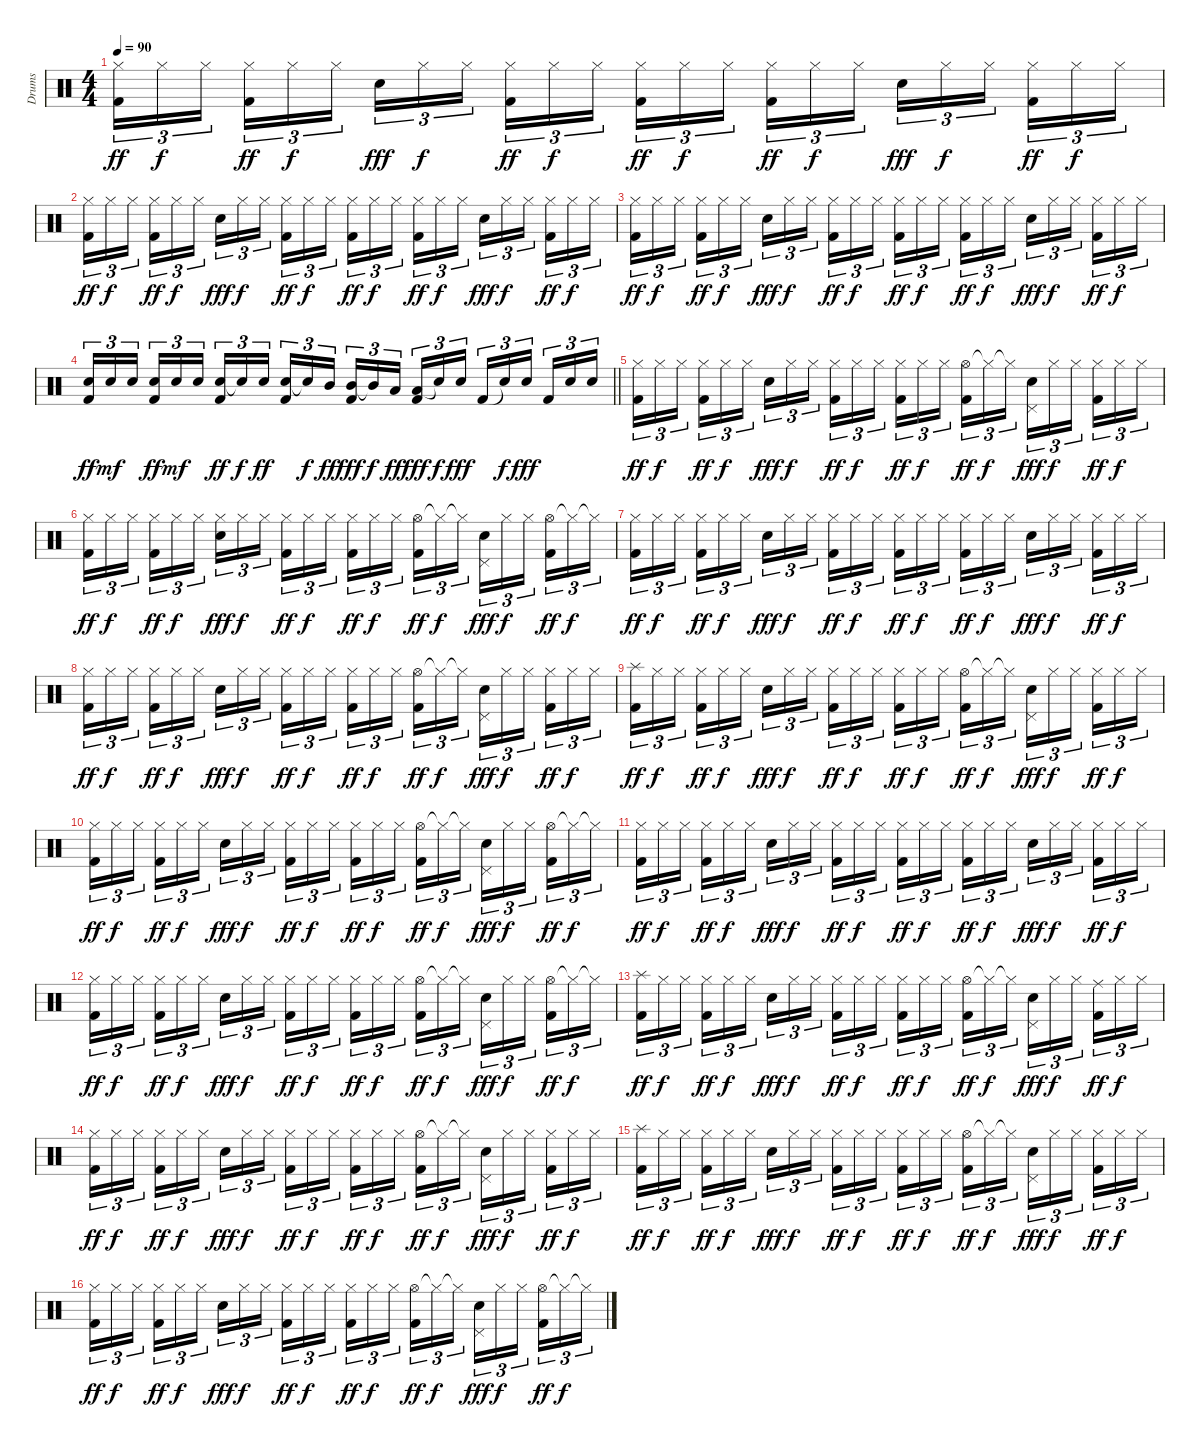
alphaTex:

\track ("Drums" "Drums") {instrument percussion}
\staff {score}
\articulation defaults
\ts (4 4)
\tempo 90
\clef neutral
\ks c
("Hi-Hat (closed)" "Kick (hit) 2").16{tu (3 2) dy ff} "Hi-Hat (closed)".16{tu (3 2) dy f} "Hi-Hat (closed)".16{tu (3 2) beam splitsecondary} ("Hi-Hat (closed)" "Kick (hit) 2").16{tu (3 2) dy ff} "Hi-Hat (closed)".16{tu (3 2) dy f} "Hi-Hat (closed)".16{tu (3 2)} "Snare (hit) 2".16{tu (3 2) dy fff} "Hi-Hat (closed)".16{tu (3 2) dy f} "Hi-Hat (closed)".16{tu (3 2) beam splitsecondary} ("Hi-Hat (closed)" "Kick (hit) 2").16{tu (3 2) dy ff} "Hi-Hat (closed)".16{tu (3 2) dy f} "Hi-Hat (closed)".16{tu (3 2)} ("Hi-Hat (closed)" "Kick (hit) 2").16{tu (3 2) dy ff} "Hi-Hat (closed)".16{tu (3 2) dy f} "Hi-Hat (closed)".16{tu (3 2) beam splitsecondary} ("Hi-Hat (closed)" "Kick (hit) 2").16{tu (3 2) dy ff} "Hi-Hat (closed)".16{tu (3 2) dy f} "Hi-Hat (closed)".16{tu (3 2)} "Snare (hit) 2".16{tu (3 2) dy fff} "Hi-Hat (closed)".16{tu (3 2) dy f} "Hi-Hat (closed)".16{tu (3 2) beam splitsecondary} ("Hi-Hat (closed)" "Kick (hit) 2").16{tu (3 2) dy ff} "Hi-Hat (closed)".16{tu (3 2) dy f} "Hi-Hat (closed)".16{tu (3 2)} |
("Hi-Hat (closed)" "Kick (hit) 2").16{tu (3 2) dy ff} "Hi-Hat (closed)".16{tu (3 2) dy f} "Hi-Hat (closed)".16{tu (3 2) beam splitsecondary} ("Hi-Hat (closed)" "Kick (hit) 2").16{tu (3 2) dy ff} "Hi-Hat (closed)".16{tu (3 2) dy f} "Hi-Hat (closed)".16{tu (3 2)} "Snare (hit) 2".16{tu (3 2) dy fff} "Hi-Hat (closed)".16{tu (3 2) dy f} "Hi-Hat (closed)".16{tu (3 2) beam splitsecondary} ("Hi-Hat (closed)" "Kick (hit) 2").16{tu (3 2) dy ff} "Hi-Hat (closed)".16{tu (3 2) dy f} "Hi-Hat (closed)".16{tu (3 2)} ("Hi-Hat (closed)" "Kick (hit) 2").16{tu (3 2) dy ff} "Hi-Hat (closed)".16{tu (3 2) dy f} "Hi-Hat (closed)".16{tu (3 2) beam splitsecondary} ("Hi-Hat (closed)" "Kick (hit) 2").16{tu (3 2) dy ff} "Hi-Hat (closed)".16{tu (3 2) dy f} "Hi-Hat (closed)".16{tu (3 2)} "Snare (hit) 2".16{tu (3 2) dy fff} "Hi-Hat (closed)".16{tu (3 2) dy f} "Hi-Hat (closed)".16{tu (3 2) beam splitsecondary} ("Hi-Hat (closed)" "Kick (hit) 2").16{tu (3 2) dy ff} "Hi-Hat (closed)".16{tu (3 2) dy f} "Hi-Hat (closed)".16{tu (3 2)} |
("Hi-Hat (closed)" "Kick (hit) 2").16{tu (3 2) dy ff} "Hi-Hat (closed)".16{tu (3 2) dy f} "Hi-Hat (closed)".16{tu (3 2) beam splitsecondary} ("Hi-Hat (closed)" "Kick (hit) 2").16{tu (3 2) dy ff} "Hi-Hat (closed)".16{tu (3 2) dy f} "Hi-Hat (closed)".16{tu (3 2)} "Snare (hit) 2".16{tu (3 2) dy fff} "Hi-Hat (closed)".16{tu (3 2) dy f} "Hi-Hat (closed)".16{tu (3 2) beam splitsecondary} ("Hi-Hat (closed)" "Kick (hit) 2").16{tu (3 2) dy ff} "Hi-Hat (closed)".16{tu (3 2) dy f} "Hi-Hat (closed)".16{tu (3 2)} ("Hi-Hat (closed)" "Kick (hit) 2").16{tu (3 2) dy ff} "Hi-Hat (closed)".16{tu (3 2) dy f} "Hi-Hat (closed)".16{tu (3 2) beam splitsecondary} ("Hi-Hat (closed)" "Kick (hit) 2").16{tu (3 2) dy ff} "Hi-Hat (closed)".16{tu (3 2) dy f} "Hi-Hat (closed)".16{tu (3 2)} "Snare (hit) 2".16{tu (3 2) dy fff} "Hi-Hat (closed)".16{tu (3 2) dy f} "Hi-Hat (closed)".16{tu (3 2) beam splitsecondary} ("Hi-Hat (closed)" "Kick (hit) 2").16{tu (3 2) dy ff} "Hi-Hat (closed)".16{tu (3 2) dy f} "Hi-Hat (closed)".16{tu (3 2)} |
\barLineRight lightlight
("Snare (hit) 2" "Kick (hit) 2").16{tu (3 2) dy ff} "Snare (hit) 2".16{tu (3 2) dy mf} "Snare (hit) 2".16{tu (3 2) beam splitsecondary} ("Snare (hit) 2" "Kick (hit) 2").16{tu (3 2) dy ff} "Snare (hit) 2".16{tu (3 2) dy mf} "Snare (hit) 2".16{tu (3 2)} ("Snare (hit) 2" "Kick (hit) 2").16{tu (3 2) dy ff} "Snare (hit)"{t}.16{tu (3 2) dy f} "Snare (hit) 2".16{tu (3 2) dy ff beam splitsecondary} ("Snare (hit) 2" "Kick (hit) 2").16{tu (3 2)} "Snare (hit)"{t}.16{tu (3 2) dy f} "Mid Tom (hit)".16{tu (3 2) dy ff} ("Mid Tom (hit)" "Kick (hit) 2").16{tu (3 2) dy fff} "Mid Tom (hit)"{t}.16{tu (3 2) dy f} "Low Tom (hit)".16{tu (3 2) dy ff beam splitsecondary} ("Low Tom (hit)" "Kick (hit) 2").16{tu (3 2) dy fff} "Snare (hit)"{t}.16{tu (3 2) dy f} "Snare (hit) 2".16{tu (3 2) dy fff} "Kick (hit) 2".16{tu (3 2)} "Snare (hit)"{t}.16{tu (3 2) dy f} "Snare (hit) 2".16{tu (3 2) dy fff beam splitsecondary} "Kick (hit) 2".16{tu (3 2)} "Snare (hit) 2".16{tu (3 2)} "Snare (hit) 2".16{tu (3 2)} |
\section ("" "")
("Hi-Hat (closed)" "Kick (hit) 2").16{tu (3 2) dy ff} "Hi-Hat (closed)".16{tu (3 2) dy f} "Hi-Hat (closed)".16{tu (3 2) beam splitsecondary} ("Hi-Hat (closed)" "Kick (hit) 2").16{tu (3 2) dy ff} "Hi-Hat (closed)".16{tu (3 2) dy f} "Hi-Hat (closed)".16{tu (3 2)} "Snare (hit) 2".16{tu (3 2) dy fff} "Hi-Hat (closed)".16{tu (3 2) dy f} "Hi-Hat (closed)".16{tu (3 2) beam splitsecondary} ("Hi-Hat (closed)" "Kick (hit) 2").16{tu (3 2) dy ff} "Hi-Hat (closed)".16{tu (3 2) dy f} "Hi-Hat (closed)".16{tu (3 2)} ("Hi-Hat (closed)" "Kick (hit) 2").16{tu (3 2) dy ff} "Hi-Hat (closed)".16{tu (3 2) dy f} "Hi-Hat (closed)".16{tu (3 2) beam splitsecondary} ("Hi-Hat (open)" "Kick (hit) 2").16{tu (3 2) dy ff} "Hi-Hat (closed)"{t}.16{tu (3 2) dy f} "Hi-Hat (closed)"{t}.16{tu (3 2)} ("Pedal Hi-Hat (hit)" "Snare (hit) 2").16{tu (3 2) dy fff} "Hi-Hat (closed)".16{tu (3 2) dy f} "Hi-Hat (closed)".16{tu (3 2) beam splitsecondary} ("Hi-Hat (closed)" "Kick (hit) 2").16{tu (3 2) dy ff} "Hi-Hat (closed)".16{tu (3 2) dy f} "Hi-Hat (closed)".16{tu (3 2)} |
("Hi-Hat (closed)" "Kick (hit) 2").16{tu (3 2) dy ff} "Hi-Hat (closed)".16{tu (3 2) dy f} "Hi-Hat (closed)".16{tu (3 2) beam splitsecondary} ("Hi-Hat (closed)" "Kick (hit) 2").16{tu (3 2) dy ff} "Hi-Hat (closed)".16{tu (3 2) dy f} "Hi-Hat (closed)".16{tu (3 2)} ("Hi-Hat (closed)" "Snare (hit) 2").16{tu (3 2) dy fff} "Hi-Hat (closed)".16{tu (3 2) dy f} "Hi-Hat (closed)".16{tu (3 2) beam splitsecondary} ("Hi-Hat (closed)" "Kick (hit) 2").16{tu (3 2) dy ff} "Hi-Hat (closed)".16{tu (3 2) dy f} "Hi-Hat (closed)".16{tu (3 2)} ("Hi-Hat (closed)" "Kick (hit) 2").16{tu (3 2) dy ff} "Hi-Hat (closed)".16{tu (3 2) dy f} "Hi-Hat (closed)".16{tu (3 2) beam splitsecondary} ("Hi-Hat (open)" "Kick (hit) 2").16{tu (3 2) dy ff} "Hi-Hat (closed)"{t}.16{tu (3 2) dy f} "Hi-Hat (closed)"{t}.16{tu (3 2)} ("Pedal Hi-Hat (hit)" "Snare (hit) 2").16{tu (3 2) dy fff} "Hi-Hat (closed)".16{tu (3 2) dy f} "Hi-Hat (closed)".16{tu (3 2) beam splitsecondary} ("Hi-Hat (open)" "Kick (hit) 2").16{tu (3 2) dy ff} "Hi-Hat (closed)"{t}.16{tu (3 2) dy f} "Hi-Hat (closed)"{t}.16{tu (3 2)} |
("Hi-Hat (closed)" "Kick (hit) 2").16{tu (3 2) dy ff} "Hi-Hat (closed)".16{tu (3 2) dy f} "Hi-Hat (closed)".16{tu (3 2) beam splitsecondary} ("Hi-Hat (closed)" "Kick (hit) 2").16{tu (3 2) dy ff} "Hi-Hat (closed)".16{tu (3 2) dy f} "Hi-Hat (closed)".16{tu (3 2)} "Snare (hit) 2".16{tu (3 2) dy fff} "Hi-Hat (closed)".16{tu (3 2) dy f} "Hi-Hat (closed)".16{tu (3 2) beam splitsecondary} ("Hi-Hat (closed)" "Kick (hit) 2").16{tu (3 2) dy ff} "Hi-Hat (closed)".16{tu (3 2) dy f} "Hi-Hat (closed)".16{tu (3 2)} ("Hi-Hat (closed)" "Kick (hit) 2").16{tu (3 2) dy ff} "Hi-Hat (closed)".16{tu (3 2) dy f} "Hi-Hat (closed)".16{tu (3 2) beam splitsecondary} ("Hi-Hat (closed)" "Kick (hit) 2").16{tu (3 2) dy ff} "Hi-Hat (closed)".16{tu (3 2) dy f} "Hi-Hat (closed)".16{tu (3 2)} "Snare (hit) 2".16{tu (3 2) dy fff} "Hi-Hat (closed)".16{tu (3 2) dy f} "Hi-Hat (closed)".16{tu (3 2) beam splitsecondary} ("Hi-Hat (closed)" "Kick (hit) 2").16{tu (3 2) dy ff} "Hi-Hat (closed)".16{tu (3 2) dy f} "Hi-Hat (closed)".16{tu (3 2)} |
("Hi-Hat (closed)" "Kick (hit) 2").16{tu (3 2) dy ff} "Hi-Hat (closed)".16{tu (3 2) dy f} "Hi-Hat (closed)".16{tu (3 2) beam splitsecondary} ("Hi-Hat (closed)" "Kick (hit) 2").16{tu (3 2) dy ff} "Hi-Hat (closed)".16{tu (3 2) dy f} "Hi-Hat (closed)".16{tu (3 2)} "Snare (hit) 2".16{tu (3 2) dy fff} "Hi-Hat (closed)".16{tu (3 2) dy f} "Hi-Hat (closed)".16{tu (3 2) beam splitsecondary} ("Hi-Hat (closed)" "Kick (hit) 2").16{tu (3 2) dy ff} "Hi-Hat (closed)".16{tu (3 2) dy f} "Hi-Hat (closed)".16{tu (3 2)} ("Hi-Hat (closed)" "Kick (hit) 2").16{tu (3 2) dy ff} "Hi-Hat (closed)".16{tu (3 2) dy f} "Hi-Hat (closed)".16{tu (3 2) beam splitsecondary} ("Hi-Hat (open)" "Kick (hit) 2").16{tu (3 2) dy ff} "Hi-Hat (closed)"{t}.16{tu (3 2) dy f} "Hi-Hat (closed)"{t}.16{tu (3 2)} ("Pedal Hi-Hat (hit)" "Snare (hit) 2").16{tu (3 2) dy fff} "Hi-Hat (closed)".16{tu (3 2) dy f} "Hi-Hat (closed)".16{tu (3 2) beam splitsecondary} ("Hi-Hat (closed)" "Kick (hit) 2").16{tu (3 2) dy ff} "Hi-Hat (closed)".16{tu (3 2) dy f} "Hi-Hat (closed)".16{tu (3 2)} |
("Splash (hit)" "Kick (hit) 2").16{tu (3 2) dy ff} "Hi-Hat (closed)".16{tu (3 2) dy f} "Hi-Hat (closed)".16{tu (3 2) beam splitsecondary} ("Hi-Hat (closed)" "Kick (hit) 2").16{tu (3 2) dy ff} "Hi-Hat (closed)".16{tu (3 2) dy f} "Hi-Hat (closed)".16{tu (3 2)} "Snare (hit) 2".16{tu (3 2) dy fff} "Hi-Hat (closed)".16{tu (3 2) dy f} "Hi-Hat (closed)".16{tu (3 2) beam splitsecondary} ("Hi-Hat (closed)" "Kick (hit) 2").16{tu (3 2) dy ff} "Hi-Hat (closed)".16{tu (3 2) dy f} "Hi-Hat (closed)".16{tu (3 2)} ("Hi-Hat (closed)" "Kick (hit) 2").16{tu (3 2) dy ff} "Hi-Hat (closed)".16{tu (3 2) dy f} "Hi-Hat (closed)".16{tu (3 2) beam splitsecondary} ("Hi-Hat (open)" "Kick (hit) 2").16{tu (3 2) dy ff} "Hi-Hat (closed)"{t}.16{tu (3 2) dy f} "Hi-Hat (closed)"{t}.16{tu (3 2)} ("Pedal Hi-Hat (hit)" "Snare (hit) 2").16{tu (3 2) dy fff} "Hi-Hat (closed)".16{tu (3 2) dy f} "Hi-Hat (closed)".16{tu (3 2) beam splitsecondary} ("Hi-Hat (closed)" "Kick (hit) 2").16{tu (3 2) dy ff} "Hi-Hat (closed)".16{tu (3 2) dy f} "Hi-Hat (closed)".16{tu (3 2)} |
("Hi-Hat (closed)" "Kick (hit) 2").16{tu (3 2) dy ff} "Hi-Hat (closed)".16{tu (3 2) dy f} "Hi-Hat (closed)".16{tu (3 2) beam splitsecondary} ("Hi-Hat (closed)" "Kick (hit) 2").16{tu (3 2) dy ff} "Hi-Hat (closed)".16{tu (3 2) dy f} "Hi-Hat (closed)".16{tu (3 2)} "Snare (hit) 2".16{tu (3 2) dy fff} "Hi-Hat (closed)".16{tu (3 2) dy f} "Hi-Hat (closed)".16{tu (3 2) beam splitsecondary} ("Hi-Hat (closed)" "Kick (hit) 2").16{tu (3 2) dy ff} "Hi-Hat (closed)".16{tu (3 2) dy f} "Hi-Hat (closed)".16{tu (3 2)} ("Hi-Hat (closed)" "Kick (hit) 2").16{tu (3 2) dy ff} "Hi-Hat (closed)".16{tu (3 2) dy f} "Hi-Hat (closed)".16{tu (3 2) beam splitsecondary} ("Hi-Hat (open)" "Kick (hit) 2").16{tu (3 2) dy ff} "Hi-Hat (closed)"{t}.16{tu (3 2) dy f} "Hi-Hat (closed)"{t}.16{tu (3 2)} ("Pedal Hi-Hat (hit)" "Snare (hit) 2").16{tu (3 2) dy fff} "Hi-Hat (closed)".16{tu (3 2) dy f} "Hi-Hat (closed)".16{tu (3 2) beam splitsecondary} ("Hi-Hat (open)" "Kick (hit) 2").16{tu (3 2) dy ff} "Hi-Hat (closed)"{t}.16{tu (3 2) dy f} "Hi-Hat (closed)"{t}.16{tu (3 2)} |
("Hi-Hat (closed)" "Kick (hit) 2").16{tu (3 2) dy ff} "Hi-Hat (closed)".16{tu (3 2) dy f} "Hi-Hat (closed)".16{tu (3 2) beam splitsecondary} ("Hi-Hat (closed)" "Kick (hit) 2").16{tu (3 2) dy ff} "Hi-Hat (closed)".16{tu (3 2) dy f} "Hi-Hat (closed)".16{tu (3 2)} "Snare (hit) 2".16{tu (3 2) dy fff} "Hi-Hat (closed)".16{tu (3 2) dy f} "Hi-Hat (closed)".16{tu (3 2) beam splitsecondary} ("Hi-Hat (closed)" "Kick (hit) 2").16{tu (3 2) dy ff} "Hi-Hat (closed)".16{tu (3 2) dy f} "Hi-Hat (closed)".16{tu (3 2)} ("Hi-Hat (closed)" "Kick (hit) 2").16{tu (3 2) dy ff} "Hi-Hat (closed)".16{tu (3 2) dy f} "Hi-Hat (closed)".16{tu (3 2) beam splitsecondary} ("Hi-Hat (closed)" "Kick (hit) 2").16{tu (3 2) dy ff} "Hi-Hat (closed)".16{tu (3 2) dy f} "Hi-Hat (closed)".16{tu (3 2)} "Snare (hit) 2".16{tu (3 2) dy fff} "Hi-Hat (closed)".16{tu (3 2) dy f} "Hi-Hat (closed)".16{tu (3 2) beam splitsecondary} ("Hi-Hat (closed)" "Kick (hit) 2").16{tu (3 2) dy ff} "Hi-Hat (closed)".16{tu (3 2) dy f} "Hi-Hat (closed)".16{tu (3 2)} |
("Hi-Hat (closed)" "Kick (hit) 2").16{tu (3 2) dy ff} "Hi-Hat (closed)".16{tu (3 2) dy f} "Hi-Hat (closed)".16{tu (3 2) beam splitsecondary} ("Hi-Hat (closed)" "Kick (hit) 2").16{tu (3 2) dy ff} "Hi-Hat (closed)".16{tu (3 2) dy f} "Hi-Hat (closed)".16{tu (3 2)} "Snare (hit) 2".16{tu (3 2) dy fff} "Hi-Hat (closed)".16{tu (3 2) dy f} "Hi-Hat (closed)".16{tu (3 2) beam splitsecondary} ("Hi-Hat (closed)" "Kick (hit) 2").16{tu (3 2) dy ff} "Hi-Hat (closed)".16{tu (3 2) dy f} "Hi-Hat (closed)".16{tu (3 2)} ("Hi-Hat (closed)" "Kick (hit) 2").16{tu (3 2) dy ff} "Hi-Hat (closed)".16{tu (3 2) dy f} "Hi-Hat (closed)".16{tu (3 2) beam splitsecondary} ("Hi-Hat (open)" "Kick (hit) 2").16{tu (3 2) dy ff} "Hi-Hat (closed)"{t}.16{tu (3 2) dy f} "Hi-Hat (closed)"{t}.16{tu (3 2)} ("Pedal Hi-Hat (hit)" "Snare (hit) 2").16{tu (3 2) dy fff} "Hi-Hat (closed)".16{tu (3 2) dy f} "Hi-Hat (closed)".16{tu (3 2) beam splitsecondary} ("Hi-Hat (open)" "Kick (hit) 2").16{tu (3 2) dy ff} "Hi-Hat (closed)"{t}.16{tu (3 2) dy f} "Hi-Hat (closed)"{t}.16{tu (3 2)} |
("Splash (hit)" "Kick (hit) 2").16{tu (3 2) dy ff} "Hi-Hat (closed)".16{tu (3 2) dy f} "Hi-Hat (closed)".16{tu (3 2) beam splitsecondary} ("Hi-Hat (closed)" "Kick (hit) 2").16{tu (3 2) dy ff} "Hi-Hat (closed)".16{tu (3 2) dy f} "Hi-Hat (closed)".16{tu (3 2)} "Snare (hit) 2".16{tu (3 2) dy fff} "Hi-Hat (closed)".16{tu (3 2) dy f} "Hi-Hat (closed)".16{tu (3 2) beam splitsecondary} ("Hi-Hat (closed)" "Kick (hit) 2").16{tu (3 2) dy ff} "Hi-Hat (closed)".16{tu (3 2) dy f} "Hi-Hat (closed)".16{tu (3 2)} ("Hi-Hat (closed)" "Kick (hit) 2").16{tu (3 2) dy ff} "Hi-Hat (closed)".16{tu (3 2) dy f} "Hi-Hat (closed)".16{tu (3 2) beam splitsecondary} ("Hi-Hat (open)" "Kick (hit) 2").16{tu (3 2) dy ff} "Hi-Hat (closed)"{t}.16{tu (3 2) dy f} "Hi-Hat (closed)"{t}.16{tu (3 2)} ("Pedal Hi-Hat (hit)" "Snare (hit) 2").16{tu (3 2) dy fff} "Hi-Hat (closed)".16{tu (3 2) dy f} "Hi-Hat (closed)".16{tu (3 2) beam splitsecondary} ("Ride (middle)" "Kick (hit) 2").16{tu (3 2) dy ff} "Hi-Hat (closed)".16{tu (3 2) dy f} "Hi-Hat (closed)".16{tu (3 2)} |
("Hi-Hat (closed)" "Kick (hit) 2").16{tu (3 2) dy ff} "Hi-Hat (closed)".16{tu (3 2) dy f} "Hi-Hat (closed)".16{tu (3 2) beam splitsecondary} ("Hi-Hat (closed)" "Kick (hit) 2").16{tu (3 2) dy ff} "Hi-Hat (closed)".16{tu (3 2) dy f} "Hi-Hat (closed)".16{tu (3 2)} "Snare (hit) 2".16{tu (3 2) dy fff} "Hi-Hat (closed)".16{tu (3 2) dy f} "Hi-Hat (closed)".16{tu (3 2) beam splitsecondary} ("Hi-Hat (closed)" "Kick (hit) 2").16{tu (3 2) dy ff} "Hi-Hat (closed)".16{tu (3 2) dy f} "Hi-Hat (closed)".16{tu (3 2)} ("Hi-Hat (closed)" "Kick (hit) 2").16{tu (3 2) dy ff} "Hi-Hat (closed)".16{tu (3 2) dy f} "Hi-Hat (closed)".16{tu (3 2) beam splitsecondary} ("Hi-Hat (open)" "Kick (hit) 2").16{tu (3 2) dy ff} "Hi-Hat (closed)"{t}.16{tu (3 2) dy f} "Hi-Hat (closed)"{t}.16{tu (3 2)} ("Pedal Hi-Hat (hit)" "Snare (hit) 2").16{tu (3 2) dy fff} "Hi-Hat (closed)".16{tu (3 2) dy f} "Hi-Hat (closed)".16{tu (3 2) beam splitsecondary} ("Hi-Hat (closed)" "Kick (hit) 2").16{tu (3 2) dy ff} "Hi-Hat (closed)".16{tu (3 2) dy f} "Hi-Hat (closed)".16{tu (3 2)} |
("Splash (hit)" "Kick (hit) 2").16{tu (3 2) dy ff} "Hi-Hat (closed)".16{tu (3 2) dy f} "Hi-Hat (closed)".16{tu (3 2) beam splitsecondary} ("Hi-Hat (closed)" "Kick (hit) 2").16{tu (3 2) dy ff} "Hi-Hat (closed)".16{tu (3 2) dy f} "Hi-Hat (closed)".16{tu (3 2)} "Snare (hit) 2".16{tu (3 2) dy fff} "Hi-Hat (closed)".16{tu (3 2) dy f} "Hi-Hat (closed)".16{tu (3 2) beam splitsecondary} ("Hi-Hat (closed)" "Kick (hit) 2").16{tu (3 2) dy ff} "Hi-Hat (closed)".16{tu (3 2) dy f} "Hi-Hat (closed)".16{tu (3 2)} ("Hi-Hat (closed)" "Kick (hit) 2").16{tu (3 2) dy ff} "Hi-Hat (closed)".16{tu (3 2) dy f} "Hi-Hat (closed)".16{tu (3 2) beam splitsecondary} ("Hi-Hat (open)" "Kick (hit) 2").16{tu (3 2) dy ff} "Hi-Hat (closed)"{t}.16{tu (3 2) dy f} "Hi-Hat (closed)"{t}.16{tu (3 2)} ("Pedal Hi-Hat (hit)" "Snare (hit) 2").16{tu (3 2) dy fff} "Hi-Hat (closed)".16{tu (3 2) dy f} "Hi-Hat (closed)".16{tu (3 2) beam splitsecondary} ("Hi-Hat (closed)" "Kick (hit) 2").16{tu (3 2) dy ff} "Hi-Hat (closed)".16{tu (3 2) dy f} "Hi-Hat (closed)".16{tu (3 2)} |
("Hi-Hat (closed)" "Kick (hit) 2").16{tu (3 2) dy ff} "Hi-Hat (closed)".16{tu (3 2) dy f} "Hi-Hat (closed)".16{tu (3 2) beam splitsecondary} ("Hi-Hat (closed)" "Kick (hit) 2").16{tu (3 2) dy ff} "Hi-Hat (closed)".16{tu (3 2) dy f} "Hi-Hat (closed)".16{tu (3 2)} "Snare (hit) 2".16{tu (3 2) dy fff} "Hi-Hat (closed)".16{tu (3 2) dy f} "Hi-Hat (closed)".16{tu (3 2) beam splitsecondary} ("Hi-Hat (closed)" "Kick (hit) 2").16{tu (3 2) dy ff} "Hi-Hat (closed)".16{tu (3 2) dy f} "Hi-Hat (closed)".16{tu (3 2)} ("Hi-Hat (closed)" "Kick (hit) 2").16{tu (3 2) dy ff} "Hi-Hat (closed)".16{tu (3 2) dy f} "Hi-Hat (closed)".16{tu (3 2) beam splitsecondary} ("Hi-Hat (open)" "Kick (hit) 2").16{tu (3 2) dy ff} "Hi-Hat (closed)"{t}.16{tu (3 2) dy f} "Hi-Hat (closed)"{t}.16{tu (3 2)} ("Pedal Hi-Hat (hit)" "Snare (hit) 2").16{tu (3 2) dy fff} "Hi-Hat (closed)".16{tu (3 2) dy f} "Hi-Hat (closed)".16{tu (3 2) beam splitsecondary} ("Hi-Hat (open)" "Kick (hit) 2").16{tu (3 2) dy ff} "Hi-Hat (closed)"{t}.16{tu (3 2) dy f} "Hi-Hat (closed)"{t}.16{tu (3 2)}
